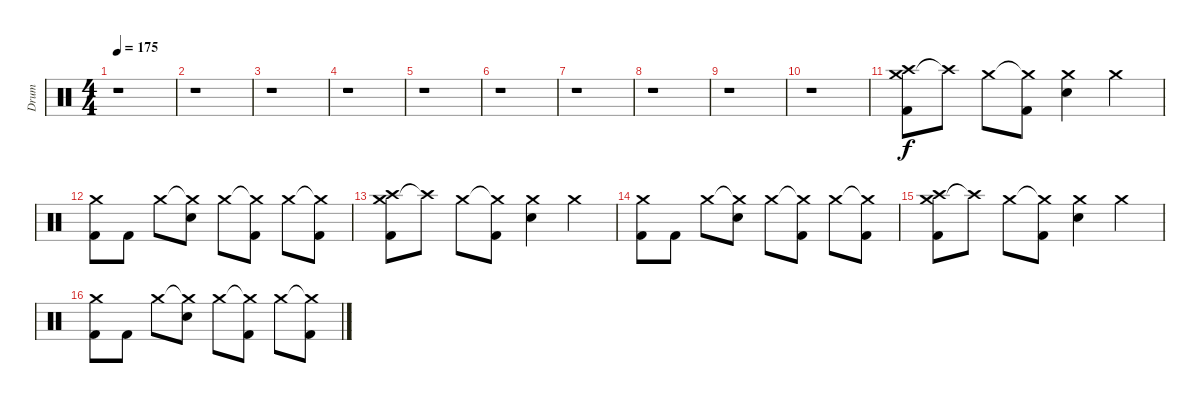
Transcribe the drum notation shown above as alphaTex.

\track ("Drum" "Drum") {instrument percussion}
\staff {score}
\articulation defaults
\ts (4 4)
\tempo 175
\clef neutral
\ks c
r.1{dy f} |
r.1 |
r.1 |
r.1 |
r.1 |
r.1 |
r.1 |
r.1 |
r.1 |
r.1 |
("Crash medium (hit)" "Crash high (hit)" "Kick (hit) 2").8 "Crash high (hit)"{t}.8 "Crash medium (hit)".8 ("Crash medium (hit)"{t} "Kick (hit) 2").8 ("Crash medium (hit)" "Snare (hit) 2").4 "Crash medium (hit)".4 |
("Crash medium (hit)" "Kick (hit) 2").8 "Kick (hit) 2".8 "Crash medium (hit)".8 ("Crash medium (hit)"{t} "Snare (hit) 2").8 "Crash medium (hit)".8 ("Crash medium (hit)"{t} "Kick (hit) 2").8 "Crash medium (hit)".8 ("Crash medium (hit)"{t} "Kick (hit) 2").8 |
("Crash medium (hit)" "Crash high (hit)" "Kick (hit) 2").8 "Crash high (hit)"{t}.8 "Crash medium (hit)".8 ("Crash medium (hit)"{t} "Kick (hit) 2").8 ("Crash medium (hit)" "Snare (hit) 2").4 "Crash medium (hit)".4 |
("Crash medium (hit)" "Kick (hit) 2").8 "Kick (hit) 2".8 "Crash medium (hit)".8 ("Crash medium (hit)"{t} "Snare (hit) 2").8 "Crash medium (hit)".8 ("Crash medium (hit)"{t} "Kick (hit) 2").8 "Crash medium (hit)".8 ("Crash medium (hit)"{t} "Kick (hit) 2").8 |
("Crash medium (hit)" "Crash high (hit)" "Kick (hit) 2").8 "Crash high (hit)"{t}.8 "Crash medium (hit)".8 ("Crash medium (hit)"{t} "Kick (hit) 2").8 ("Crash medium (hit)" "Snare (hit) 2").4 "Crash medium (hit)".4 |
("Crash medium (hit)" "Kick (hit) 2").8 "Kick (hit) 2".8 "Crash medium (hit)".8 ("Crash medium (hit)"{t} "Snare (hit) 2").8 "Crash medium (hit)".8 ("Crash medium (hit)"{t} "Kick (hit) 2").8 "Crash medium (hit)".8 ("Crash medium (hit)"{t} "Kick (hit) 2").8
